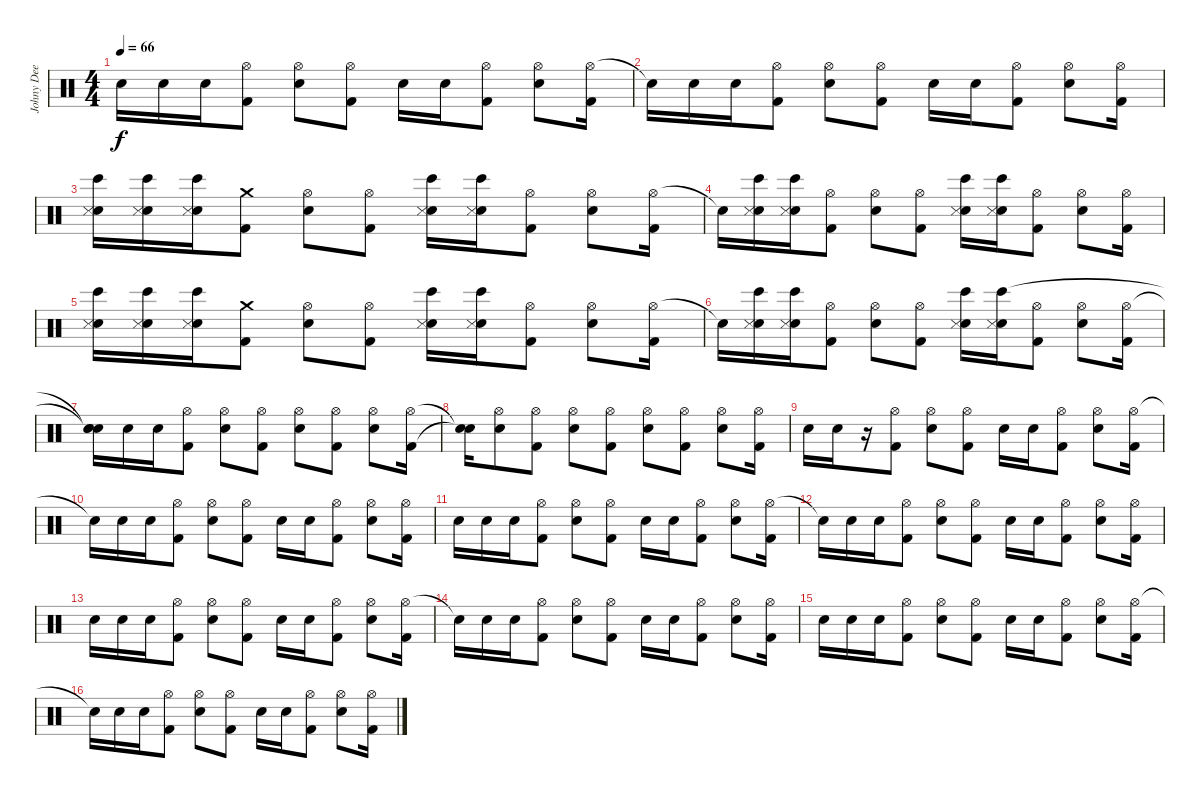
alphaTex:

\track ("Johny Dee" "Johny Dee") {instrument percussion}
\staff {score}
\articulation defaults
\ts (4 4)
\tempo 66
\clef neutral
\ks c "Snare (hit) 2".16{dy f} "Snare (hit) 2".16 "Snare (hit) 2".16
("Hi-Hat (open)" "Kick (hit) 2").8 ("Hi-Hat (open)" "Snare (hit) 2").8 ("Hi-Hat (open)" "Kick (hit) 2").8 "Snare (hit) 2".16 "Snare (hit) 2".16 ("Hi-Hat (open)" "Kick (hit) 2").8 ("Hi-Hat (open)" "Snare (hit) 2").8 ("Hi-Hat (open)" "Kick (hit) 2").16 |
"Snare (hit)"{t}.16 "Snare (hit) 2".16 "Snare (hit) 2".16 ("Hi-Hat (open)" "Kick (hit) 2").8 ("Hi-Hat (open)" "Snare (hit) 2").8 ("Hi-Hat (open)" "Kick (hit) 2").8 "Snare (hit) 2".16 "Snare (hit) 2".16 ("Hi-Hat (open)" "Kick (hit) 2").8 ("Hi-Hat (open)" "Snare (hit) 2").8 ("Hi-Hat (open)" "Kick (hit) 2").16 |
("Snare (hit) 2" "Metronome (hit)" "Bongo High (hit)").16 ("Snare (hit) 2" "Metronome (hit)" "Bongo High (hit)").16 ("Snare (hit) 2" "Metronome (hit)" "Bongo High (hit)").16 ("Crash medium (hit)" "Kick (hit) 2").8 ("Hi-Hat (open)" "Snare (hit) 2").8 ("Hi-Hat (open)" "Kick (hit) 2").8 ("Snare (hit) 2" "Metronome (hit)" "Bongo High (hit)").16 ("Snare (hit) 2" "Metronome (hit)" "Bongo High (hit)").16 ("Hi-Hat (open)" "Kick (hit) 2").8 ("Hi-Hat (open)" "Snare (hit) 2").8 ("Hi-Hat (open)" "Kick (hit) 2").16 |
"Snare (hit)"{t}.16 ("Snare (hit) 2" "Metronome (hit)" "Bongo High (hit)").16 ("Snare (hit) 2" "Metronome (hit)" "Bongo High (hit)").16 ("Hi-Hat (open)" "Kick (hit) 2").8 ("Hi-Hat (open)" "Snare (hit) 2").8 ("Hi-Hat (open)" "Kick (hit) 2").8 ("Snare (hit) 2" "Metronome (hit)" "Bongo High (hit)").16 ("Snare (hit) 2" "Metronome (hit)" "Bongo High (hit)").16 ("Hi-Hat (open)" "Kick (hit) 2").8 ("Hi-Hat (open)" "Snare (hit) 2").8 ("Hi-Hat (open)" "Kick (hit) 2").16 |
("Snare (hit) 2" "Metronome (hit)" "Bongo High (hit)").16 ("Snare (hit) 2" "Metronome (hit)" "Bongo High (hit)").16 ("Snare (hit) 2" "Metronome (hit)" "Bongo High (hit)").16 ("Crash medium (hit)" "Kick (hit) 2").8 ("Hi-Hat (open)" "Snare (hit) 2").8 ("Hi-Hat (open)" "Kick (hit) 2").8 ("Snare (hit) 2" "Metronome (hit)" "Bongo High (hit)").16 ("Snare (hit) 2" "Metronome (hit)" "Bongo High (hit)").16 ("Hi-Hat (open)" "Kick (hit) 2").8 ("Hi-Hat (open)" "Snare (hit) 2").8 ("Hi-Hat (open)" "Kick (hit) 2").16 |
"Snare (hit)"{t}.16 ("Snare (hit) 2" "Metronome (hit)" "Bongo High (hit)").16 ("Snare (hit) 2" "Metronome (hit)" "Bongo High (hit)").16 ("Hi-Hat (open)" "Kick (hit) 2").8 ("Hi-Hat (open)" "Snare (hit) 2").8 ("Hi-Hat (open)" "Kick (hit) 2").8 ("Snare (hit) 2" "Metronome (hit)" "Bongo High (hit)").16 ("Snare (hit) 2" "Metronome (hit)" "Bongo High (hit)").16 ("Hi-Hat (open)" "Kick (hit) 2").8 ("Hi-Hat (open)" "Snare (hit) 2").8 ("Hi-Hat (open)" "Kick (hit) 2").16 |
("Snare (hit)"{t} "Snare (hit) 2" "Snare (hit)"{t}).16 "Snare (hit) 2".16 "Snare (hit) 2".16 ("Hi-Hat (open)" "Kick (hit) 2").8 ("Hi-Hat (open)" "Snare (hit) 2").8 ("Hi-Hat (open)" "Kick (hit) 2").8 ("Hi-Hat (open)" "Snare (hit) 2").8 ("Hi-Hat (open)" "Kick (hit) 2").8 ("Hi-Hat (open)" "Snare (hit) 2").8 ("Hi-Hat (open)" "Kick (hit) 2").16 |
("Snare (hit)"{t} "Snare (hit)"{t}).16 ("Hi-Hat (open)" "Snare (hit) 2").8 ("Hi-Hat (open)" "Kick (hit) 2").8 ("Hi-Hat (open)" "Snare (hit) 2").8 ("Hi-Hat (open)" "Kick (hit) 2").8 ("Hi-Hat (open)" "Snare (hit) 2").8 ("Hi-Hat (open)" "Kick (hit) 2").8 ("Hi-Hat (open)" "Snare (hit) 2").8 ("Hi-Hat (open)" "Kick (hit) 2").16 |
"Snare (hit) 2".16 "Snare (hit) 2".16 r.16 ("Hi-Hat (open)" "Kick (hit) 2").8 ("Hi-Hat (open)" "Snare (hit) 2").8 ("Hi-Hat (open)" "Kick (hit) 2").8 "Snare (hit) 2".16 "Snare (hit) 2".16 ("Hi-Hat (open)" "Kick (hit) 2").8 ("Hi-Hat (open)" "Snare (hit) 2").8 ("Hi-Hat (open)" "Kick (hit) 2").16 |
"Snare (hit)"{t}.16 "Snare (hit) 2".16 "Snare (hit) 2".16 ("Hi-Hat (open)" "Kick (hit) 2").8 ("Hi-Hat (open)" "Snare (hit) 2").8 ("Hi-Hat (open)" "Kick (hit) 2").8 "Snare (hit) 2".16 "Snare (hit) 2".16 ("Hi-Hat (open)" "Kick (hit) 2").8 ("Hi-Hat (open)" "Snare (hit) 2").8 ("Hi-Hat (open)" "Kick (hit) 2").16 |
"Snare (hit) 2".16 "Snare (hit) 2".16 "Snare (hit) 2".16 ("Hi-Hat (open)" "Kick (hit) 2").8 ("Hi-Hat (open)" "Snare (hit) 2").8 ("Hi-Hat (open)" "Kick (hit) 2").8 "Snare (hit) 2".16 "Snare (hit) 2".16 ("Hi-Hat (open)" "Kick (hit) 2").8 ("Hi-Hat (open)" "Snare (hit) 2").8 ("Hi-Hat (open)" "Kick (hit) 2").16 |
"Snare (hit)"{t}.16 "Snare (hit) 2".16 "Snare (hit) 2".16 ("Hi-Hat (open)" "Kick (hit) 2").8 ("Hi-Hat (open)" "Snare (hit) 2").8 ("Hi-Hat (open)" "Kick (hit) 2").8 "Snare (hit) 2".16 "Snare (hit) 2".16 ("Hi-Hat (open)" "Kick (hit) 2").8 ("Hi-Hat (open)" "Snare (hit) 2").8 ("Hi-Hat (open)" "Kick (hit) 2").16 |
"Snare (hit) 2".16 "Snare (hit) 2".16 "Snare (hit) 2".16 ("Hi-Hat (open)" "Kick (hit) 2").8 ("Hi-Hat (open)" "Snare (hit) 2").8 ("Hi-Hat (open)" "Kick (hit) 2").8 "Snare (hit) 2".16 "Snare (hit) 2".16 ("Hi-Hat (open)" "Kick (hit) 2").8 ("Hi-Hat (open)" "Snare (hit) 2").8 ("Hi-Hat (open)" "Kick (hit) 2").16 |
"Snare (hit)"{t}.16 "Snare (hit) 2".16 "Snare (hit) 2".16 ("Hi-Hat (open)" "Kick (hit) 2").8 ("Hi-Hat (open)" "Snare (hit) 2").8 ("Hi-Hat (open)" "Kick (hit) 2").8 "Snare (hit) 2".16 "Snare (hit) 2".16 ("Hi-Hat (open)" "Kick (hit) 2").8 ("Hi-Hat (open)" "Snare (hit) 2").8 ("Hi-Hat (open)" "Kick (hit) 2").16 |
"Snare (hit) 2".16 "Snare (hit) 2".16 "Snare (hit) 2".16 ("Hi-Hat (open)" "Kick (hit) 2").8 ("Hi-Hat (open)" "Snare (hit) 2").8 ("Hi-Hat (open)" "Kick (hit) 2").8 "Snare (hit) 2".16 "Snare (hit) 2".16 ("Hi-Hat (open)" "Kick (hit) 2").8 ("Hi-Hat (open)" "Snare (hit) 2").8 ("Hi-Hat (open)" "Kick (hit) 2").16 |
"Snare (hit)"{t}.16 "Snare (hit) 2".16 "Snare (hit) 2".16 ("Hi-Hat (open)" "Kick (hit) 2").8 ("Hi-Hat (open)" "Snare (hit) 2").8 ("Hi-Hat (open)" "Kick (hit) 2").8 "Snare (hit) 2".16 "Snare (hit) 2".16 ("Hi-Hat (open)" "Kick (hit) 2").8 ("Hi-Hat (open)" "Snare (hit) 2").8 ("Hi-Hat (open)" "Kick (hit) 2").16
